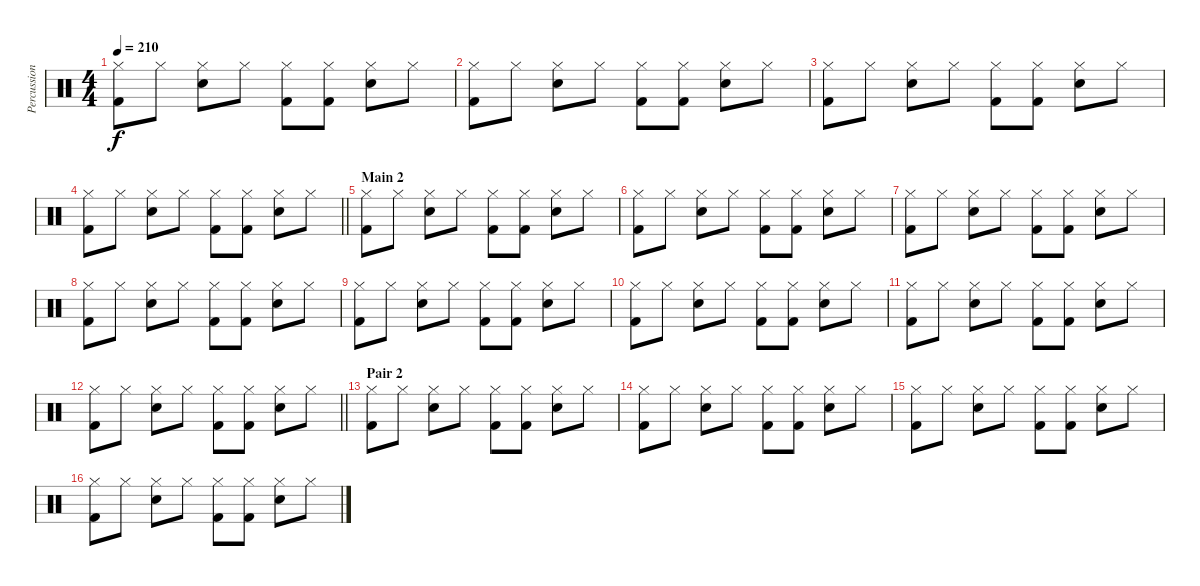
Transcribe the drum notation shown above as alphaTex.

\track ("Percussion" "Percussion") {instrument percussion}
\staff {score}
\articulation defaults
\ts (4 4)
\tempo 210
\clef neutral
\ks c
("Hi-Hat (closed)" "Kick (hit) 2").8{dy f} "Hi-Hat (closed)".8 ("Hi-Hat (closed)" "Snare (hit) 2").8 "Hi-Hat (closed)".8 ("Hi-Hat (closed)" "Kick (hit) 2").8 ("Hi-Hat (closed)" "Kick (hit) 2").8 ("Hi-Hat (closed)" "Snare (hit) 2").8 "Hi-Hat (closed)".8 |
("Hi-Hat (closed)" "Kick (hit) 2").8 "Hi-Hat (closed)".8 ("Hi-Hat (closed)" "Snare (hit) 2").8 "Hi-Hat (closed)".8 ("Hi-Hat (closed)" "Kick (hit) 2").8 ("Hi-Hat (closed)" "Kick (hit) 2").8 ("Hi-Hat (closed)" "Snare (hit) 2").8 "Hi-Hat (closed)".8 |
("Hi-Hat (closed)" "Kick (hit) 2").8 "Hi-Hat (closed)".8 ("Hi-Hat (closed)" "Snare (hit) 2").8 "Hi-Hat (closed)".8 ("Hi-Hat (closed)" "Kick (hit) 2").8 ("Hi-Hat (closed)" "Kick (hit) 2").8 ("Hi-Hat (closed)" "Snare (hit) 2").8 "Hi-Hat (closed)".8 |
\barLineRight lightlight
("Hi-Hat (closed)" "Kick (hit) 2").8 "Hi-Hat (closed)".8 ("Hi-Hat (closed)" "Snare (hit) 2").8 "Hi-Hat (closed)".8 ("Hi-Hat (closed)" "Kick (hit) 2").8 ("Hi-Hat (closed)" "Kick (hit) 2").8 ("Hi-Hat (closed)" "Snare (hit) 2").8 "Hi-Hat (closed)".8 |
\section ("" "Main 2")
("Hi-Hat (closed)" "Kick (hit) 2").8 "Hi-Hat (closed)".8 ("Hi-Hat (closed)" "Snare (hit) 2").8 "Hi-Hat (closed)".8 ("Hi-Hat (closed)" "Kick (hit) 2").8 ("Hi-Hat (closed)" "Kick (hit) 2").8 ("Hi-Hat (closed)" "Snare (hit) 2").8 "Hi-Hat (closed)".8 |
("Hi-Hat (closed)" "Kick (hit) 2").8 "Hi-Hat (closed)".8 ("Hi-Hat (closed)" "Snare (hit) 2").8 "Hi-Hat (closed)".8 ("Hi-Hat (closed)" "Kick (hit) 2").8 ("Hi-Hat (closed)" "Kick (hit) 2").8 ("Hi-Hat (closed)" "Snare (hit) 2").8 "Hi-Hat (closed)".8 |
("Hi-Hat (closed)" "Kick (hit) 2").8 "Hi-Hat (closed)".8 ("Hi-Hat (closed)" "Snare (hit) 2").8 "Hi-Hat (closed)".8 ("Hi-Hat (closed)" "Kick (hit) 2").8 ("Hi-Hat (closed)" "Kick (hit) 2").8 ("Hi-Hat (closed)" "Snare (hit) 2").8 "Hi-Hat (closed)".8 |
("Hi-Hat (closed)" "Kick (hit) 2").8 "Hi-Hat (closed)".8 ("Hi-Hat (closed)" "Snare (hit) 2").8 "Hi-Hat (closed)".8 ("Hi-Hat (closed)" "Kick (hit) 2").8 ("Hi-Hat (closed)" "Kick (hit) 2").8 ("Hi-Hat (closed)" "Snare (hit) 2").8 "Hi-Hat (closed)".8 |
("Hi-Hat (closed)" "Kick (hit) 2").8 "Hi-Hat (closed)".8 ("Hi-Hat (closed)" "Snare (hit) 2").8 "Hi-Hat (closed)".8 ("Hi-Hat (closed)" "Kick (hit) 2").8 ("Hi-Hat (closed)" "Kick (hit) 2").8 ("Hi-Hat (closed)" "Snare (hit) 2").8 "Hi-Hat (closed)".8 |
("Hi-Hat (closed)" "Kick (hit) 2").8 "Hi-Hat (closed)".8 ("Hi-Hat (closed)" "Snare (hit) 2").8 "Hi-Hat (closed)".8 ("Hi-Hat (closed)" "Kick (hit) 2").8 ("Hi-Hat (closed)" "Kick (hit) 2").8 ("Hi-Hat (closed)" "Snare (hit) 2").8 "Hi-Hat (closed)".8 |
("Hi-Hat (closed)" "Kick (hit) 2").8 "Hi-Hat (closed)".8 ("Hi-Hat (closed)" "Snare (hit) 2").8 "Hi-Hat (closed)".8 ("Hi-Hat (closed)" "Kick (hit) 2").8 ("Hi-Hat (closed)" "Kick (hit) 2").8 ("Hi-Hat (closed)" "Snare (hit) 2").8 "Hi-Hat (closed)".8 |
\barLineRight lightlight
("Hi-Hat (closed)" "Kick (hit) 2").8 "Hi-Hat (closed)".8 ("Hi-Hat (closed)" "Snare (hit) 2").8 "Hi-Hat (closed)".8 ("Hi-Hat (closed)" "Kick (hit) 2").8 ("Hi-Hat (closed)" "Kick (hit) 2").8 ("Hi-Hat (closed)" "Snare (hit) 2").8 "Hi-Hat (closed)".8 |
\section ("" "Pair 2")
("Hi-Hat (closed)" "Kick (hit) 2").8 "Hi-Hat (closed)".8 ("Hi-Hat (closed)" "Snare (hit) 2").8 "Hi-Hat (closed)".8 ("Hi-Hat (closed)" "Kick (hit) 2").8 ("Hi-Hat (closed)" "Kick (hit) 2").8 ("Hi-Hat (closed)" "Snare (hit) 2").8 "Hi-Hat (closed)".8 |
("Hi-Hat (closed)" "Kick (hit) 2").8 "Hi-Hat (closed)".8 ("Hi-Hat (closed)" "Snare (hit) 2").8 "Hi-Hat (closed)".8 ("Hi-Hat (closed)" "Kick (hit) 2").8 ("Hi-Hat (closed)" "Kick (hit) 2").8 ("Hi-Hat (closed)" "Snare (hit) 2").8 "Hi-Hat (closed)".8 |
("Hi-Hat (closed)" "Kick (hit) 2").8 "Hi-Hat (closed)".8 ("Hi-Hat (closed)" "Snare (hit) 2").8 "Hi-Hat (closed)".8 ("Hi-Hat (closed)" "Kick (hit) 2").8 ("Hi-Hat (closed)" "Kick (hit) 2").8 ("Hi-Hat (closed)" "Snare (hit) 2").8 "Hi-Hat (closed)".8 |
("Hi-Hat (closed)" "Kick (hit) 2").8 "Hi-Hat (closed)".8 ("Hi-Hat (closed)" "Snare (hit) 2").8 "Hi-Hat (closed)".8 ("Hi-Hat (closed)" "Kick (hit) 2").8 ("Hi-Hat (closed)" "Kick (hit) 2").8 ("Hi-Hat (closed)" "Snare (hit) 2").8 "Hi-Hat (closed)".8
